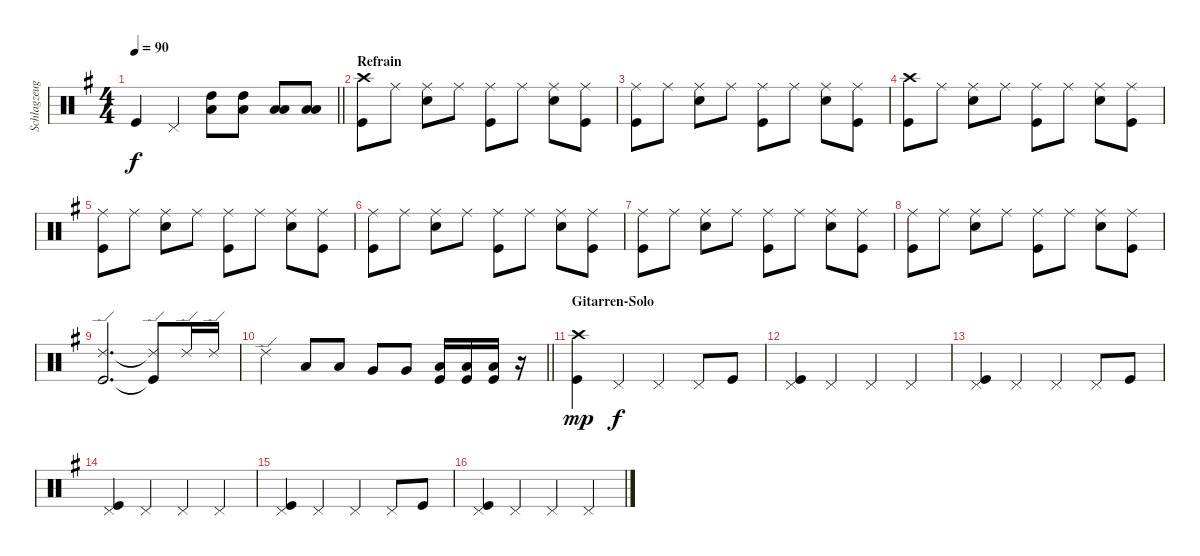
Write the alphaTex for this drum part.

\track ("Schlagzeug" "Schlagzeug") {instrument percussion}
\staff {score}
\articulation defaults
\ts (4 4)
\tempo 90
\clef neutral
\barLineRight lightlight
\ks g "Kick (hit)".4{dy f} "Pedal Hi-Hat (hit)".4
("High Tom (hit)" "Low Floor Tom (hit)").8 ("High Tom (hit)" "Low Floor Tom (hit)").8 ("Low Tom (hit)" "Low Floor Tom (hit)").8 ("Low Tom (hit)" "Low Floor Tom (hit)").8 |
\section ("" "Refrain")
("Crash high (hit)" "Kick (hit)").8 "Ride (middle)".8 ("Ride (middle)" "Snare (hit) 2").8 "Ride (middle)".8 ("Ride (middle)" "Kick (hit)").8 "Ride (middle)".8 ("Ride (middle)" "Snare (hit) 2").8 ("Ride (middle)" "Kick (hit)").8 |
("Ride (middle)" "Kick (hit)").8 "Ride (middle)".8 ("Ride (middle)" "Snare (hit) 2").8 "Ride (middle)".8 ("Ride (middle)" "Kick (hit)").8 "Ride (middle)".8 ("Ride (middle)" "Snare (hit) 2").8 ("Ride (middle)" "Kick (hit)").8 |
("Crash high (hit)" "Kick (hit)").8 "Ride (middle)".8 ("Ride (middle)" "Snare (hit) 2").8 "Ride (middle)".8 ("Ride (middle)" "Kick (hit)").8 "Ride (middle)".8 ("Ride (middle)" "Snare (hit) 2").8 ("Ride (middle)" "Kick (hit)").8 |
("Ride (middle)" "Kick (hit)").8 "Ride (middle)".8 ("Ride (middle)" "Snare (hit) 2").8 "Ride (middle)".8 ("Ride (middle)" "Kick (hit)").8 "Ride (middle)".8 ("Ride (middle)" "Snare (hit) 2").8 ("Ride (middle)" "Kick (hit)").8 |
("Ride (middle)" "Kick (hit)").8 "Ride (middle)".8 ("Ride (middle)" "Snare (hit) 2").8 "Ride (middle)".8 ("Ride (middle)" "Kick (hit)").8 "Ride (middle)".8 ("Ride (middle)" "Snare (hit) 2").8 ("Ride (middle)" "Kick (hit)").8 |
("Ride (middle)" "Kick (hit)").8 "Ride (middle)".8 ("Ride (middle)" "Snare (hit) 2").8 "Ride (middle)".8 ("Ride (middle)" "Kick (hit)").8 "Ride (middle)".8 ("Ride (middle)" "Snare (hit) 2").8 ("Ride (middle)" "Kick (hit)").8 |
("Ride (middle)" "Kick (hit)").8 "Ride (middle)".8 ("Ride (middle)" "Snare (hit) 2").8 "Ride (middle)".8 ("Ride (middle)" "Kick (hit)").8 "Ride (middle)".8 ("Ride (middle)" "Snare (hit) 2").8 ("Ride (middle)" "Kick (hit)").8 |
("Ride (edge) 2" "Kick (hit)").2{d} ("Ride (edge) 2"{t} "Kick (hit)"{t}).8 "Ride (edge) 2".16 "Ride (edge) 2".16 |
\barLineRight lightlight "Ride (edge) 2".4 "Low Tom (hit)".8 "Low Tom (hit)".8 "Very Low Tom (hit)".8 "Very Low Tom (hit)".8
("Low Floor Tom (hit)" "Kick (hit)").16 ("Low Floor Tom (hit)" "Kick (hit)").16 ("Low Floor Tom (hit)" "Kick (hit)").16 r.16 |
\section ("" "Gitarren-Solo")
("Crash high (hit)" "Kick (hit)").4{dy mp} "Pedal Hi-Hat (hit)".4{dy f} "Pedal Hi-Hat (hit)".4 "Pedal Hi-Hat (hit)".8 "Kick (hit)".8 |
("Pedal Hi-Hat (hit)" "Kick (hit)").4 "Pedal Hi-Hat (hit)".4 "Pedal Hi-Hat (hit)".4 "Pedal Hi-Hat (hit)".4 |
("Pedal Hi-Hat (hit)" "Kick (hit)").4 "Pedal Hi-Hat (hit)".4 "Pedal Hi-Hat (hit)".4 "Pedal Hi-Hat (hit)".8 "Kick (hit)".8 |
("Pedal Hi-Hat (hit)" "Kick (hit)").4 "Pedal Hi-Hat (hit)".4 "Pedal Hi-Hat (hit)".4 "Pedal Hi-Hat (hit)".4 |
("Pedal Hi-Hat (hit)" "Kick (hit)").4 "Pedal Hi-Hat (hit)".4 "Pedal Hi-Hat (hit)".4 "Pedal Hi-Hat (hit)".8 "Kick (hit)".8 |
("Pedal Hi-Hat (hit)" "Kick (hit)").4 "Pedal Hi-Hat (hit)".4 "Pedal Hi-Hat (hit)".4 "Pedal Hi-Hat (hit)".4
